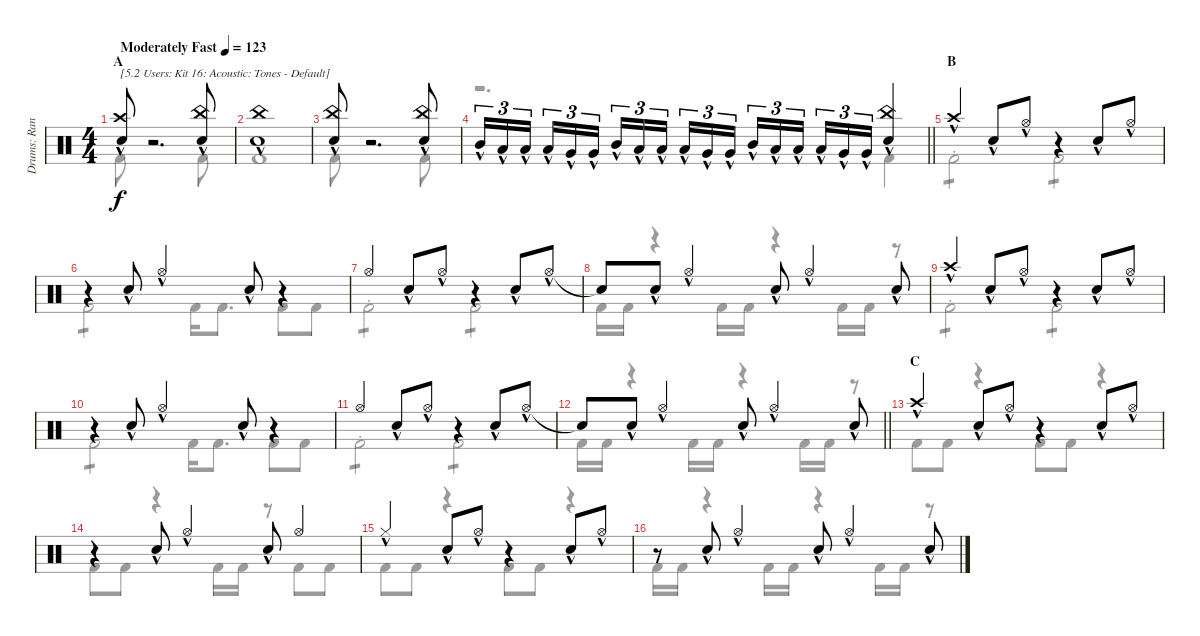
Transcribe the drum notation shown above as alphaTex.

\track ("Drums: Randy" "Drums: Ran") {instrument percussion}
\staff {score}
\articulation defaults
\voice
\ts (4 4)
\section ("" "A")
\tempo (123 "Moderately Fast")
\clef neutral
\ks c
("Crash high (hit)" "Snare (hit) 2"{hac}).8{txt "[5.2 Users: Kit 16: Acoustic: Tones - Default]" dy f} r.2{d} ("China (hit)" "Snare (hit) 2"{hac}).8 |
("China (hit)" "Snare (hit) 2"{hac}).1 |
("China (hit)" "Snare (hit) 2"{hac}).8 r.2{d} ("China (hit)" "Snare (hit) 2"{hac}).8 |
\barLineRight lightlight "Mid Tom (hit)"{hac}.16{tu (3 2)} "Low Tom (hit)"{hac}.16{tu (3 2)} "Low Tom (hit)"{hac}.16{tu (3 2) beam splitsecondary} "Low Tom (hit)"{hac}.16{tu (3 2)} "Very Low Tom (hit)"{hac}.16{tu (3 2)} "Very Low Tom (hit)"{hac}.16{tu (3 2)} "Mid Tom (hit)"{hac}.16{tu (3 2)} "Low Tom (hit)"{hac}.16{tu (3 2)} "Low Tom (hit)"{hac}.16{tu (3 2) beam splitsecondary} "Low Tom (hit)"{hac}.16{tu (3 2)} "Very Low Tom (hit)"{hac}.16{tu (3 2)} "Very Low Tom (hit)"{hac}.16{tu (3 2)} "Mid Tom (hit)"{hac}.16{tu (3 2)} "Low Tom (hit)"{hac}.16{tu (3 2)} "Low Tom (hit)"{hac}.16{tu (3 2) beam splitsecondary} "Low Tom (hit)"{hac}.16{tu (3 2)} "Very Low Tom (hit)"{hac}.16{tu (3 2)} "Very Low Tom (hit)"{hac}.16{tu (3 2)}
("China (hit)" "Snare (hit) 2"{hac}).4 |
\section ("" "B")
"Crash high (hit)"{hac}.4 "Snare (hit) 2"{hac}.8 "Hi-Hat (open)"{hac}.8 r.4 "Snare (hit) 2"{hac}.8 "Hi-Hat (open)"{hac}.8 |
r.4 "Snare (hit) 2"{hac}.8 "Hi-Hat (open)"{hac}.4 "Snare (hit) 2"{hac}.8 r.4 |
"Hi-Hat (open)".4 "Snare (hit) 2"{hac}.8 "Hi-Hat (open)"{hac}.8 r.4 "Snare (hit) 2"{hac}.8 "Hi-Hat (open)"{hac}.8 |
"Snare (hit)"{t}.8 "Snare (hit) 2"{hac}.8 "Hi-Hat (open)"{hac}.4 "Snare (hit) 2"{hac}.8 "Hi-Hat (open)"{hac}.4 "Snare (hit) 2"{hac}.8 |
"Crash high (hit)"{hac}.4 "Snare (hit) 2"{hac}.8 "Hi-Hat (open)"{hac}.8 r.4 "Snare (hit) 2"{hac}.8 "Hi-Hat (open)"{hac}.8 |
r.4 "Snare (hit) 2"{hac}.8 "Hi-Hat (open)"{hac}.4 "Snare (hit) 2"{hac}.8 r.4 |
"Hi-Hat (open)".4 "Snare (hit) 2"{hac}.8 "Hi-Hat (open)"{hac}.8 r.4 "Snare (hit) 2"{hac}.8 "Hi-Hat (open)"{hac}.8 |
\barLineRight lightlight "Snare (hit)"{t}.8 "Snare (hit) 2"{hac}.8 "Hi-Hat (open)"{hac}.4 "Snare (hit) 2"{hac}.8 "Hi-Hat (open)"{hac}.4 "Snare (hit) 2"{hac}.8
|
\section ("" "C")
"Crash high (hit)"{hac}.4 "Snare (hit) 2"{hac}.8 "Hi-Hat (open)"{hac}.8 r.4 "Snare (hit) 2"{hac}.8 "Hi-Hat (open)"{hac}.8 |
r.4 "Snare (hit) 2"{hac}.8 "Hi-Hat (open)"{hac}.4 "Snare (hit) 2"{hac}.8 "Hi-Hat (open)".4 |
"Hi-Hat (closed)"{hac}.4 "Snare (hit) 2"{hac}.8 "Hi-Hat (open)"{hac}.8 r.4 "Snare (hit) 2"{hac}.8 "Hi-Hat (open)"{hac}.8 |
r.8 "Snare (hit) 2"{hac}.8 "Hi-Hat (open)"{hac}.4 "Snare (hit) 2"{hac}.8 "Hi-Hat (open)"{hac}.4 "Snare (hit) 2"{hac}.8
\voice
\clef neutral
\ottava regular
\simile none
\ks c "Kick (hit) 2".8{dy f}
r.2{d} "Kick (hit) 2".8 |
"Kick (hit) 2".1 |
"Kick (hit) 2".8 r.2{d} "Kick (hit) 2".8 |
\barLineRight lightlight
r.2{d} "Kick (hit) 2".4 |
"Kick (hit) 2"{st}.2{tp 1} "Kick (hit) 2"{st}.2{tp 1} |
"Kick (hit) 2"{st}.2{tp 1} "Kick (hit) 2".16 "Kick (hit) 2".8{d} "Kick (hit) 2".8 "Kick (hit) 2".8 |
"Kick (hit) 2"{st}.2{tp 1} "Kick (hit) 2"{st}.2{tp 1} |
"Kick (hit) 2".16 "Kick (hit) 2".16 r.4 "Kick (hit) 2".16 "Kick (hit) 2".16 r.4 "Kick (hit) 2".16 "Kick (hit) 2".16 r.8 |
"Kick (hit) 2"{st}.2{tp 1} "Kick (hit) 2"{st}.2{tp 1} |
"Kick (hit) 2"{st}.2{tp 1} "Kick (hit) 2".16 "Kick (hit) 2".8{d} "Kick (hit) 2".8 "Kick (hit) 2".8 |
"Kick (hit) 2"{st}.2{tp 1} "Kick (hit) 2"{st}.2{tp 1} |
\barLineRight lightlight "Kick (hit) 2".16 "Kick (hit) 2".16
r.4 "Kick (hit) 2".16 "Kick (hit) 2".16 r.4 "Kick (hit) 2".16 "Kick (hit) 2".16 r.8 |
"Kick (hit) 2".8 "Kick (hit) 2".8 r.4 "Kick (hit) 2".8 "Kick (hit) 2".8 r.4 |
"Kick (hit) 2".8 "Kick (hit) 2".8 r.4 "Kick (hit) 2".16 "Kick (hit) 2".16 r.8 "Kick (hit) 2".8 "Kick (hit) 2".8 |
"Kick (hit) 2".8 "Kick (hit) 2".8 r.4 "Kick (hit) 2".8 "Kick (hit) 2".8 r.4 |
"Kick (hit) 2".16 "Kick (hit) 2".16 r.4 "Kick (hit) 2".16 "Kick (hit) 2".16 r.4 "Kick (hit) 2".16 "Kick (hit) 2".16 r.8
